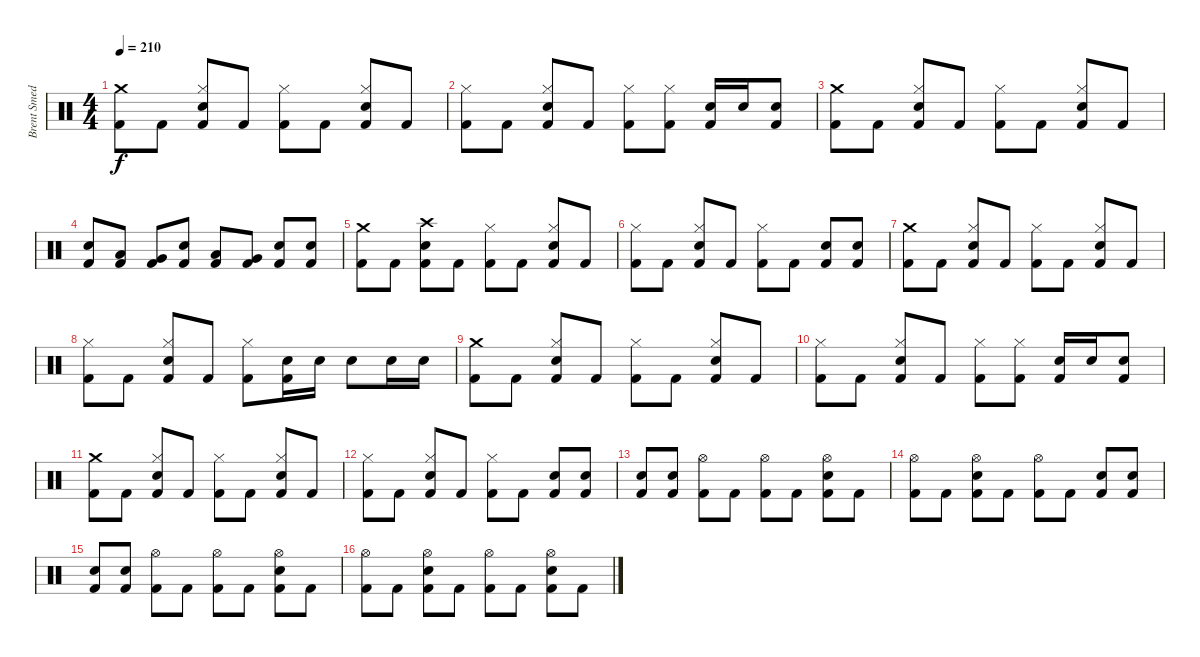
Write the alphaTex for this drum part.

\track ("Brent Smedley" "Brent Smed") {instrument percussion}
\staff {score}
\articulation defaults
\ts (4 4)
\tempo 210
\clef neutral
\ks c
("Crash medium (hit)" "Kick (hit) 2").8{dy f} "Kick (hit) 2".8 ("Hi-Hat (closed)" "Electric Snare (hit)" "Kick (hit) 2").8 "Kick (hit) 2".8 ("Hi-Hat (closed)" "Kick (hit) 2").8 "Kick (hit) 2".8 ("Hi-Hat (closed)" "Electric Snare (hit)" "Kick (hit) 2").8 "Kick (hit) 2".8 |
("Hi-Hat (closed)" "Kick (hit) 2").8 "Kick (hit) 2".8 ("Hi-Hat (closed)" "Electric Snare (hit)" "Kick (hit) 2").8 "Kick (hit) 2".8 ("Hi-Hat (closed)" "Kick (hit) 2").8 ("Hi-Hat (closed)" "Kick (hit) 2").8 ("Electric Snare (hit)" "Kick (hit) 2").16 "Electric Snare (hit)".16 ("Electric Snare (hit)" "Kick (hit) 2").8 |
("Crash medium (hit)" "Kick (hit) 2").8 "Kick (hit) 2".8 ("Hi-Hat (closed)" "Electric Snare (hit)" "Kick (hit) 2").8 "Kick (hit) 2".8 ("Hi-Hat (closed)" "Kick (hit) 2").8 "Kick (hit) 2".8 ("Hi-Hat (closed)" "Electric Snare (hit)" "Kick (hit) 2").8 "Kick (hit) 2".8 |
("Electric Snare (hit)" "Kick (hit) 2").8 ("Low Tom (hit)" "Kick (hit) 2").8 ("Very Low Tom (hit)" "Kick (hit) 2").8 ("Electric Snare (hit)" "Kick (hit) 2").8 ("Low Tom (hit)" "Kick (hit) 2").8 ("Very Low Tom (hit)" "Kick (hit) 2").8 ("Electric Snare (hit)" "Kick (hit) 2").8 ("Electric Snare (hit)" "Kick (hit) 2").8 |
("Crash medium (hit)" "Kick (hit) 2").8 "Kick (hit) 2".8 ("Crash high (hit)" "Electric Snare (hit)" "Kick (hit) 2").8 "Kick (hit) 2".8 ("Hi-Hat (closed)" "Kick (hit) 2").8 "Kick (hit) 2".8 ("Hi-Hat (closed)" "Electric Snare (hit)" "Kick (hit) 2").8 "Kick (hit) 2".8 |
("Hi-Hat (closed)" "Kick (hit) 2").8 "Kick (hit) 2".8 ("Hi-Hat (closed)" "Electric Snare (hit)" "Kick (hit) 2").8 "Kick (hit) 2".8 ("Hi-Hat (closed)" "Kick (hit) 2").8 "Kick (hit) 2".8 ("Electric Snare (hit)" "Kick (hit) 2").8 ("Electric Snare (hit)" "Kick (hit) 2").8 |
("Crash medium (hit)" "Kick (hit) 2").8 "Kick (hit) 2".8 ("Hi-Hat (closed)" "Electric Snare (hit)" "Kick (hit) 2").8 "Kick (hit) 2".8 ("Hi-Hat (closed)" "Kick (hit) 2").8 "Kick (hit) 2".8 ("Hi-Hat (closed)" "Electric Snare (hit)" "Kick (hit) 2").8 "Kick (hit) 2".8 |
("Hi-Hat (closed)" "Kick (hit) 2").8 "Kick (hit) 2".8 ("Hi-Hat (closed)" "Electric Snare (hit)" "Kick (hit) 2").8 "Kick (hit) 2".8 ("Hi-Hat (closed)" "Kick (hit) 2").8 ("Electric Snare (hit)" "Kick (hit) 2").16 "Electric Snare (hit)".16 "Electric Snare (hit)".8 "Electric Snare (hit)".16 "Electric Snare (hit)".16 |
("Crash medium (hit)" "Kick (hit) 2").8 "Kick (hit) 2".8 ("Hi-Hat (closed)" "Electric Snare (hit)" "Kick (hit) 2").8 "Kick (hit) 2".8 ("Hi-Hat (closed)" "Kick (hit) 2").8 "Kick (hit) 2".8 ("Hi-Hat (closed)" "Electric Snare (hit)" "Kick (hit) 2").8 "Kick (hit) 2".8 |
("Hi-Hat (closed)" "Kick (hit) 2").8 "Kick (hit) 2".8 ("Hi-Hat (closed)" "Electric Snare (hit)" "Kick (hit) 2").8 "Kick (hit) 2".8 ("Hi-Hat (closed)" "Kick (hit) 2").8 ("Hi-Hat (closed)" "Kick (hit) 2").8 ("Electric Snare (hit)" "Kick (hit) 2").16 "Electric Snare (hit)".16 ("Electric Snare (hit)" "Kick (hit) 2").8 |
("Crash medium (hit)" "Kick (hit) 2").8 "Kick (hit) 2".8 ("Hi-Hat (closed)" "Electric Snare (hit)" "Kick (hit) 2").8 "Kick (hit) 2".8 ("Hi-Hat (closed)" "Kick (hit) 2").8 "Kick (hit) 2".8 ("Hi-Hat (closed)" "Electric Snare (hit)" "Kick (hit) 2").8 "Kick (hit) 2".8 |
("Hi-Hat (closed)" "Kick (hit) 2").8 "Kick (hit) 2".8 ("Hi-Hat (closed)" "Electric Snare (hit)" "Kick (hit) 2").8 "Kick (hit) 2".8 ("Hi-Hat (closed)" "Kick (hit) 2").8 "Kick (hit) 2".8 ("Electric Snare (hit)" "Kick (hit) 2").8 ("Electric Snare (hit)" "Kick (hit) 2").8 |
("Electric Snare (hit)" "Kick (hit) 2").8 ("Electric Snare (hit)" "Kick (hit) 2").8 ("Hi-Hat (open)" "Kick (hit) 2").8 "Kick (hit) 2".8 ("Hi-Hat (open)" "Kick (hit) 2").8 "Kick (hit) 2".8 ("Hi-Hat (open)" "Electric Snare (hit)" "Kick (hit) 2").8 "Kick (hit) 2".8 |
("Hi-Hat (open)" "Kick (hit) 2").8 "Kick (hit) 2".8 ("Hi-Hat (open)" "Electric Snare (hit)" "Kick (hit) 2").8 "Kick (hit) 2".8 ("Hi-Hat (open)" "Kick (hit) 2").8 "Kick (hit) 2".8 ("Electric Snare (hit)" "Kick (hit) 2").8 ("Electric Snare (hit)" "Kick (hit) 2").8 |
("Electric Snare (hit)" "Kick (hit) 2").8 ("Electric Snare (hit)" "Kick (hit) 2").8 ("Hi-Hat (open)" "Kick (hit) 2").8 "Kick (hit) 2".8 ("Hi-Hat (open)" "Kick (hit) 2").8 "Kick (hit) 2".8 ("Hi-Hat (open)" "Electric Snare (hit)" "Kick (hit) 2").8 "Kick (hit) 2".8 |
("Hi-Hat (open)" "Kick (hit) 2").8 "Kick (hit) 2".8 ("Hi-Hat (open)" "Electric Snare (hit)" "Kick (hit) 2").8 "Kick (hit) 2".8 ("Hi-Hat (open)" "Kick (hit) 2").8 "Kick (hit) 2".8 ("Hi-Hat (open)" "Electric Snare (hit)" "Kick (hit) 2").8 "Kick (hit) 2".8
